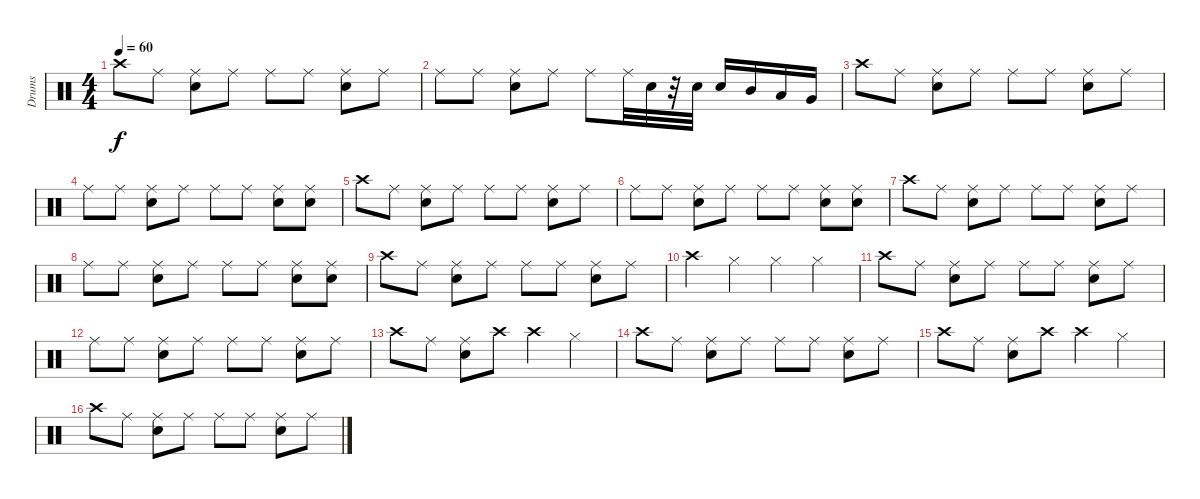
\track ("Drums" "Drums") {instrument percussion}
\staff {score}
\articulation defaults
\ts (4 4)
\tempo 60
\clef neutral
\ks c "Crash high (hit)".8{dy f} "Ride (middle)".8
("Snare (hit) 2" "Ride (middle)").8 "Ride (middle)".8 "Ride (middle)".8 "Ride (middle)".8 ("Snare (hit) 2" "Ride (middle)").8 "Ride (middle)".8 |
"Ride (middle)".8 "Ride (middle)".8 ("Snare (hit) 2" "Ride (middle)").8 "Ride (middle)".8 "Ride (middle)".8 "Ride (middle)".32 "Snare (hit) 2".32 r.32 "Snare (hit) 2".32 "Snare (hit) 2".16 "Mid Tom (hit)".16 "Low Tom (hit)".16 "Very Low Tom (hit)".16 |
"Crash high (hit)".8 "Ride (middle)".8 ("Snare (hit) 2" "Ride (middle)").8 "Ride (middle)".8 "Ride (middle)".8 "Ride (middle)".8 ("Snare (hit) 2" "Ride (middle)").8 "Ride (middle)".8 |
"Ride (middle)".8 "Ride (middle)".8 ("Snare (hit) 2" "Ride (middle)").8 "Ride (middle)".8 "Ride (middle)".8 "Ride (middle)".8 ("Snare (hit) 2" "Ride (middle)").8 ("Snare (hit) 2" "Ride (middle)").8 |
"Crash high (hit)".8 "Ride (middle)".8 ("Snare (hit) 2" "Ride (middle)").8 "Ride (middle)".8 "Ride (middle)".8 "Ride (middle)".8 ("Snare (hit) 2" "Ride (middle)").8 "Ride (middle)".8 |
"Ride (middle)".8 "Ride (middle)".8 ("Snare (hit) 2" "Ride (middle)").8 "Ride (middle)".8 "Ride (middle)".8 "Ride (middle)".8 ("Snare (hit) 2" "Ride (middle)").8 ("Snare (hit) 2" "Ride (middle)").8 |
"Crash high (hit)".8 "Ride (middle)".8 ("Snare (hit) 2" "Ride (middle)").8 "Ride (middle)".8 "Ride (middle)".8 "Ride (middle)".8 ("Snare (hit) 2" "Ride (middle)").8 "Ride (middle)".8 |
"Ride (middle)".8 "Ride (middle)".8 ("Snare (hit) 2" "Ride (middle)").8 "Ride (middle)".8 "Ride (middle)".8 "Ride (middle)".8 ("Snare (hit) 2" "Ride (middle)").8 ("Snare (hit) 2" "Ride (middle)").8 |
"Crash high (hit)".8 "Ride (middle)".8 ("Snare (hit) 2" "Ride (middle)").8 "Ride (middle)".8 "Ride (middle)".8 "Ride (middle)".8 ("Snare (hit) 2" "Ride (middle)").8 "Ride (middle)".8 |
"Crash high (hit)".4 "Hi-Hat (closed)".4 "Hi-Hat (closed)".4 "Hi-Hat (closed)".4 |
"Crash high (hit)".8 "Ride (middle)".8 ("Snare (hit) 2" "Ride (middle)").8 "Ride (middle)".8 "Ride (middle)".8 "Ride (middle)".8 ("Snare (hit) 2" "Ride (middle)").8 "Ride (middle)".8 |
"Ride (middle)".8 "Ride (middle)".8 ("Snare (hit) 2" "Ride (middle)").8 "Ride (middle)".8 "Ride (middle)".8 "Ride (middle)".8 ("Snare (hit) 2" "Ride (middle)").8 "Ride (middle)".8 |
"Crash high (hit)".8 "Ride (middle)".8 ("Snare (hit) 2" "Ride (middle)").8 "Crash high (hit)".8 "Crash high (hit)".4 "Hi-Hat (closed)".4 |
"Crash high (hit)".8 "Ride (middle)".8 ("Snare (hit) 2" "Ride (middle)").8 "Ride (middle)".8 "Ride (middle)".8 "Ride (middle)".8 ("Snare (hit) 2" "Ride (middle)").8 "Ride (middle)".8 |
"Crash high (hit)".8 "Ride (middle)".8 ("Snare (hit) 2" "Ride (middle)").8 "Crash high (hit)".8 "Crash high (hit)".4 "Hi-Hat (closed)".4 |
"Crash high (hit)".8 "Ride (middle)".8 ("Snare (hit) 2" "Ride (middle)").8 "Ride (middle)".8 "Ride (middle)".8 "Ride (middle)".8 ("Snare (hit) 2" "Ride (middle)").8 "Ride (middle)".8
